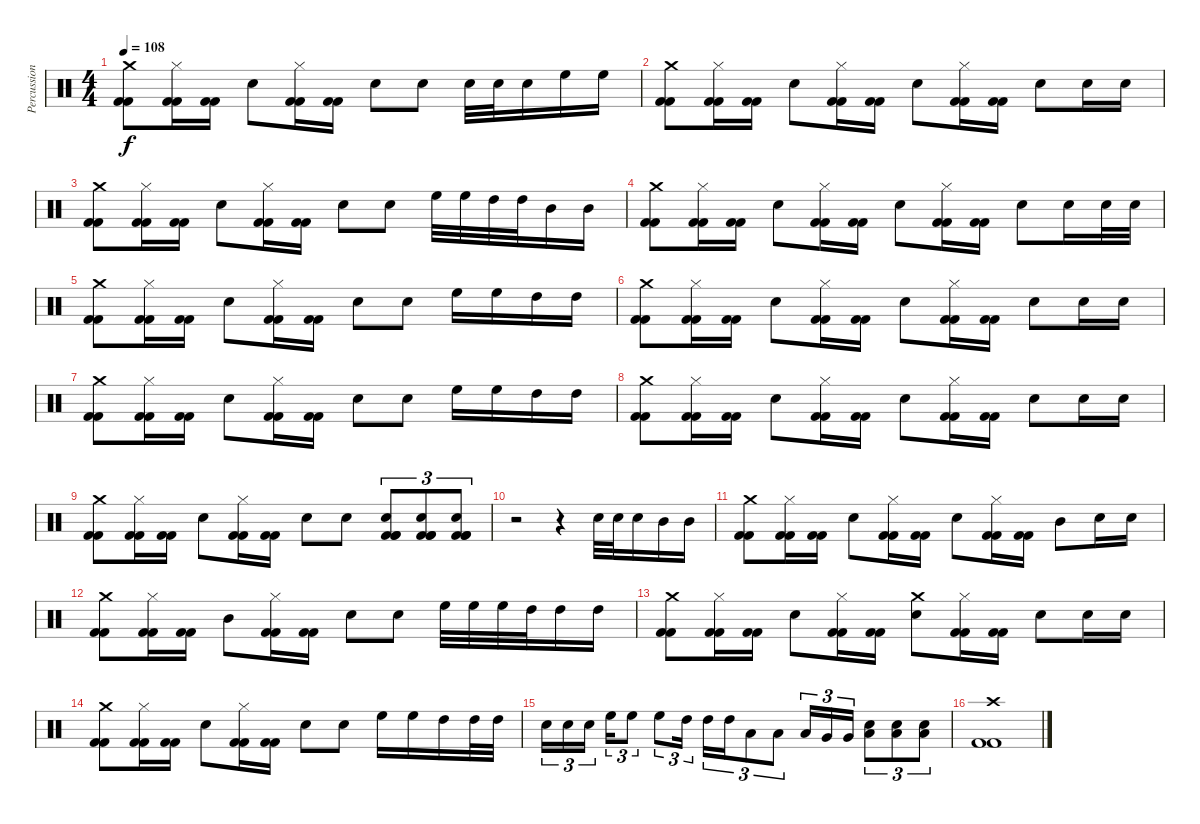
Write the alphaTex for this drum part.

\track ("Percussion" "Percussion") {instrument percussion}
\staff {score}
\articulation defaults
\ts (4 4)
\tempo 108
\clef neutral
\ks c
("Crash medium (hit)" "Kick (hit) 2" "Kick (hit) 2").8{dy f} ("Hi-Hat (closed)" "Kick (hit) 2" "Kick (hit) 2").16 ("Kick (hit) 2" "Kick (hit) 2").16 "Electric Snare (hit)".8 ("Hi-Hat (closed)" "Kick (hit) 2" "Kick (hit) 2").16 ("Kick (hit) 2" "Kick (hit) 2").16 "Electric Snare (hit)".8 "Electric Snare (hit)".8 "Electric Snare (hit)".32 "Electric Snare (hit)".32 "Electric Snare (hit)".16 "High Floor Tom (hit)".16 "High Floor Tom (hit)".16 |
("Crash medium (hit)" "Kick (hit) 2" "Kick (hit) 2").8 ("Hi-Hat (closed)" "Kick (hit) 2" "Kick (hit) 2").16 ("Kick (hit) 2" "Kick (hit) 2").16 "Electric Snare (hit)".8 ("Hi-Hat (closed)" "Kick (hit) 2" "Kick (hit) 2").16 ("Kick (hit) 2" "Kick (hit) 2").16 "Electric Snare (hit)".8 ("Hi-Hat (closed)" "Kick (hit) 2" "Kick (hit) 2").16 ("Kick (hit) 2" "Kick (hit) 2").16 "Electric Snare (hit)".8 "Electric Snare (hit)".16 "Electric Snare (hit)".16 |
("Crash medium (hit)" "Kick (hit) 2" "Kick (hit) 2").8 ("Hi-Hat (closed)" "Kick (hit) 2" "Kick (hit) 2").16 ("Kick (hit) 2" "Kick (hit) 2").16 "Electric Snare (hit)".8 ("Hi-Hat (closed)" "Kick (hit) 2" "Kick (hit) 2").16 ("Kick (hit) 2" "Kick (hit) 2").16 "Electric Snare (hit)".8 "Electric Snare (hit)".8 "High Floor Tom (hit)".32 "High Floor Tom (hit)".32 "High Tom (hit)".32 "High Tom (hit)".32 "Mid Tom (hit)".16 "Mid Tom (hit)".16 |
("Crash medium (hit)" "Kick (hit) 2" "Kick (hit) 2").8 ("Hi-Hat (closed)" "Kick (hit) 2" "Kick (hit) 2").16 ("Kick (hit) 2" "Kick (hit) 2").16 "Electric Snare (hit)".8 ("Hi-Hat (closed)" "Kick (hit) 2" "Kick (hit) 2").16 ("Kick (hit) 2" "Kick (hit) 2").16 "Electric Snare (hit)".8 ("Hi-Hat (closed)" "Kick (hit) 2" "Kick (hit) 2").16 ("Kick (hit) 2" "Kick (hit) 2").16 "Electric Snare (hit)".8 "Electric Snare (hit)".16 "Electric Snare (hit)".32 "Electric Snare (hit)".32 |
("Crash medium (hit)" "Kick (hit) 2" "Kick (hit) 2").8 ("Hi-Hat (closed)" "Kick (hit) 2" "Kick (hit) 2").16 ("Kick (hit) 2" "Kick (hit) 2").16 "Electric Snare (hit)".8 ("Hi-Hat (closed)" "Kick (hit) 2" "Kick (hit) 2").16 ("Kick (hit) 2" "Kick (hit) 2").16 "Electric Snare (hit)".8 "Electric Snare (hit)".8 "High Floor Tom (hit)".16 "High Floor Tom (hit)".16 "High Tom (hit)".16 "High Tom (hit)".16 |
("Crash medium (hit)" "Kick (hit) 2" "Kick (hit) 2").8 ("Hi-Hat (closed)" "Kick (hit) 2" "Kick (hit) 2").16 ("Kick (hit) 2" "Kick (hit) 2").16 "Electric Snare (hit)".8 ("Hi-Hat (closed)" "Kick (hit) 2" "Kick (hit) 2").16 ("Kick (hit) 2" "Kick (hit) 2").16 "Electric Snare (hit)".8 ("Hi-Hat (closed)" "Kick (hit) 2" "Kick (hit) 2").16 ("Kick (hit) 2" "Kick (hit) 2").16 "Electric Snare (hit)".8 "Electric Snare (hit)".16 "Electric Snare (hit)".16 |
("Crash medium (hit)" "Kick (hit) 2" "Kick (hit) 2").8 ("Hi-Hat (closed)" "Kick (hit) 2" "Kick (hit) 2").16 ("Kick (hit) 2" "Kick (hit) 2").16 "Electric Snare (hit)".8 ("Hi-Hat (closed)" "Kick (hit) 2" "Kick (hit) 2").16 ("Kick (hit) 2" "Kick (hit) 2").16 "Electric Snare (hit)".8 "Electric Snare (hit)".8 "High Floor Tom (hit)".16 "High Floor Tom (hit)".16 "High Tom (hit)".16 "High Tom (hit)".16 |
("Crash medium (hit)" "Kick (hit) 2" "Kick (hit) 2").8 ("Hi-Hat (closed)" "Kick (hit) 2" "Kick (hit) 2").16 ("Kick (hit) 2" "Kick (hit) 2").16 "Electric Snare (hit)".8 ("Hi-Hat (closed)" "Kick (hit) 2" "Kick (hit) 2").16 ("Kick (hit) 2" "Kick (hit) 2").16 "Electric Snare (hit)".8 ("Hi-Hat (closed)" "Kick (hit) 2" "Kick (hit) 2").16 ("Kick (hit) 2" "Kick (hit) 2").16 "Electric Snare (hit)".8 "Electric Snare (hit)".16 "Electric Snare (hit)".16 |
("Crash medium (hit)" "Kick (hit) 2" "Kick (hit) 2").8 ("Hi-Hat (closed)" "Kick (hit) 2" "Kick (hit) 2").16 ("Kick (hit) 2" "Kick (hit) 2").16 "Electric Snare (hit)".8 ("Hi-Hat (closed)" "Kick (hit) 2" "Kick (hit) 2").16 ("Kick (hit) 2" "Kick (hit) 2").16 "Electric Snare (hit)".8 "Electric Snare (hit)".8 ("Electric Snare (hit)" "Kick (hit) 2" "Kick (hit) 2" "Kick (hit) 2").8{tu (3 2)} ("Electric Snare (hit)" "Kick (hit) 2" "Kick (hit) 2" "Kick (hit) 2").8{tu (3 2)} ("Electric Snare (hit)" "Kick (hit) 2" "Kick (hit) 2" "Kick (hit) 2").8{tu (3 2)} |
r.2 r.4 "Electric Snare (hit)".32 "Electric Snare (hit)".32 "Electric Snare (hit)".16 "Mid Tom (hit)".16 "Mid Tom (hit)".16 |
("Crash medium (hit)" "Kick (hit) 2" "Kick (hit) 2").8 ("Hi-Hat (closed)" "Kick (hit) 2" "Kick (hit) 2").16 ("Kick (hit) 2" "Kick (hit) 2").16 "Electric Snare (hit)".8 ("Hi-Hat (closed)" "Kick (hit) 2" "Kick (hit) 2").16 ("Kick (hit) 2" "Kick (hit) 2").16 "Electric Snare (hit)".8 ("Hi-Hat (closed)" "Kick (hit) 2" "Kick (hit) 2").16 ("Kick (hit) 2" "Kick (hit) 2").16 "Mid Tom (hit)".8 "Electric Snare (hit)".16 "Electric Snare (hit)".16 |
("Crash medium (hit)" "Kick (hit) 2" "Kick (hit) 2").8 ("Hi-Hat (closed)" "Kick (hit) 2" "Kick (hit) 2").16 ("Kick (hit) 2" "Kick (hit) 2").16 "Mid Tom (hit)".8 ("Hi-Hat (closed)" "Kick (hit) 2" "Kick (hit) 2").16 ("Kick (hit) 2" "Kick (hit) 2").16 "Electric Snare (hit)".8 "Electric Snare (hit)".8 "High Floor Tom (hit)".32 "High Floor Tom (hit)".32 "High Floor Tom (hit)".32 "High Tom (hit)".32 "High Tom (hit)".16 "High Tom (hit)".16 |
("Crash medium (hit)" "Kick (hit) 2" "Kick (hit) 2").8 ("Hi-Hat (closed)" "Kick (hit) 2" "Kick (hit) 2").16 ("Kick (hit) 2" "Kick (hit) 2").16 "Electric Snare (hit)".8 ("Hi-Hat (closed)" "Kick (hit) 2" "Kick (hit) 2").16 ("Kick (hit) 2" "Kick (hit) 2").16 ("Crash medium (hit)" "Electric Snare (hit)").8 ("Hi-Hat (closed)" "Kick (hit) 2" "Kick (hit) 2").16 ("Kick (hit) 2" "Kick (hit) 2").16 "Electric Snare (hit)".8 "Electric Snare (hit)".16 "Electric Snare (hit)".16 |
("Crash medium (hit)" "Kick (hit) 2" "Kick (hit) 2").8 ("Hi-Hat (closed)" "Kick (hit) 2" "Kick (hit) 2").16 ("Kick (hit) 2" "Kick (hit) 2").16 "Electric Snare (hit)".8 ("Hi-Hat (closed)" "Kick (hit) 2" "Kick (hit) 2").16 ("Kick (hit) 2" "Kick (hit) 2").16 "Electric Snare (hit)".8 "Electric Snare (hit)".8 "High Floor Tom (hit)".16 "High Floor Tom (hit)".16 "High Tom (hit)".16 "High Tom (hit)".32 "High Tom (hit)".32 |
"Electric Snare (hit)".16{tu (3 2)} "Electric Snare (hit)".16{tu (3 2)} "Electric Snare (hit)".16{tu (3 2)} "High Floor Tom (hit)".16{tu (3 2)} "High Floor Tom (hit)".8{tu (3 2)} "High Floor Tom (hit)".8{tu (3 2)} "High Tom (hit)".16{tu (3 2)} "High Tom (hit)".16{tu (3 2)} "High Tom (hit)".16{tu (3 2)} "Low Tom (hit)".8{tu (3 2)} "Low Tom (hit)".8{tu (3 2)} "Low Tom (hit)".16{tu (3 2)} "Very Low Tom (hit)".16{tu (3 2)} "Very Low Tom (hit)".16{tu (3 2)} ("Low Floor Tom (hit)" "Electric Snare (hit)").8{tu (3 2)} ("Low Floor Tom (hit)" "Electric Snare (hit)").8{tu (3 2)} ("Low Floor Tom (hit)" "Electric Snare (hit)").8{tu (3 2)} |
("Crash high (hit)" "Kick (hit) 2" "Kick (hit) 2").1
